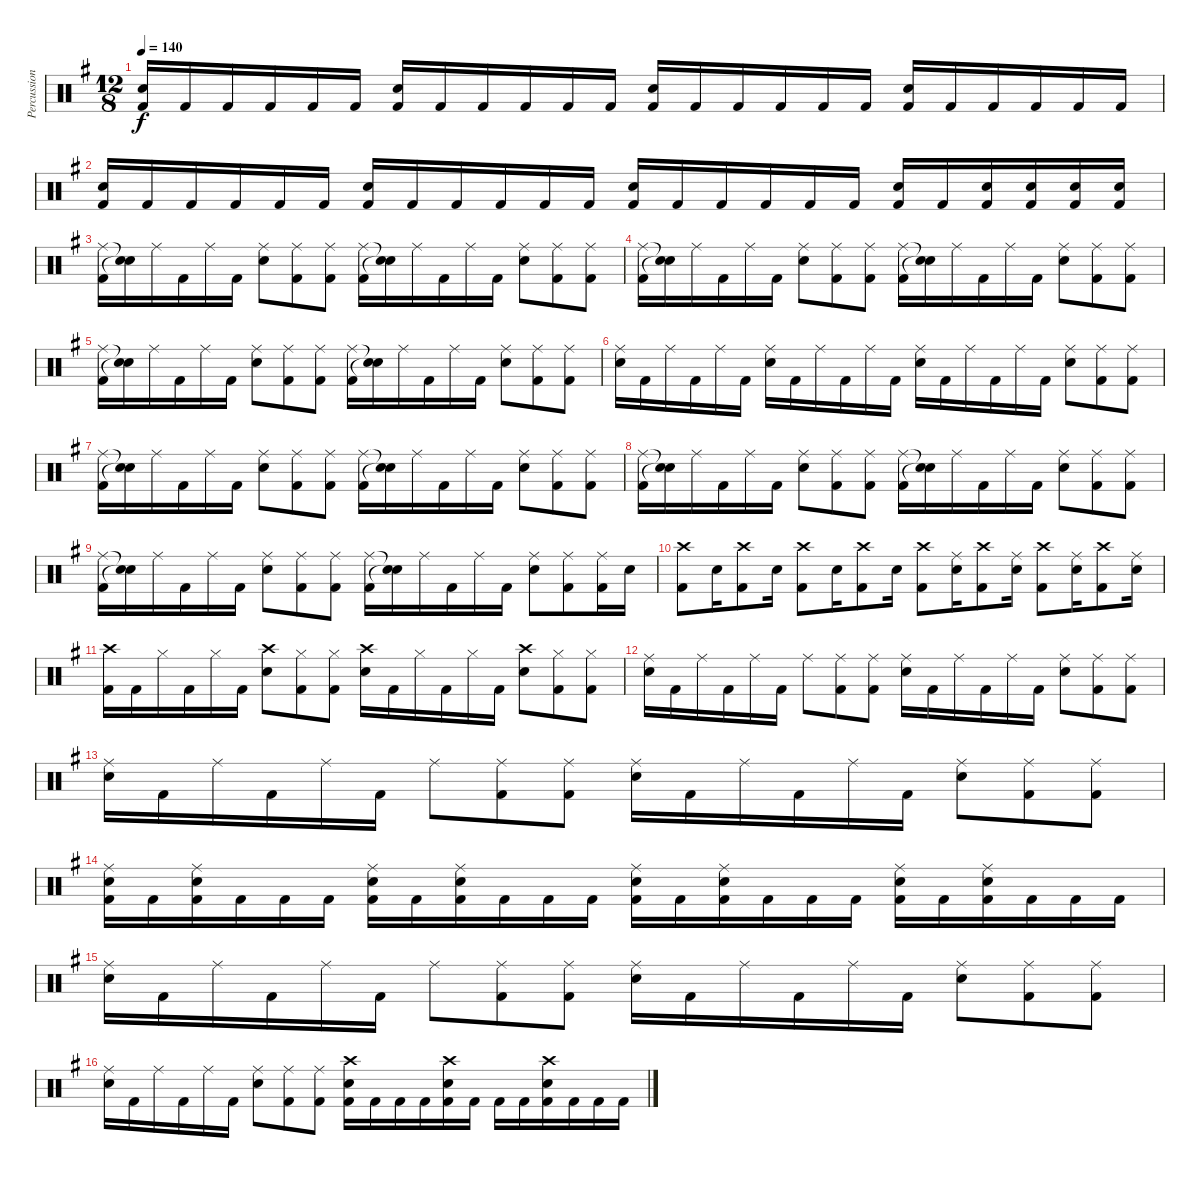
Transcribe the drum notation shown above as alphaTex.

\track ("Percussion" "Percussion") {instrument percussion}
\staff {score}
\articulation defaults
\ts (12 8)
\tempo 140
\clef neutral
\ks g
("Snare (hit) 2" "Kick (hit) 2").16{dy f} "Kick (hit) 2".16 "Kick (hit) 2".16 "Kick (hit) 2".16 "Kick (hit) 2".16 "Kick (hit) 2".16 ("Snare (hit) 2" "Kick (hit) 2").16 "Kick (hit) 2".16 "Kick (hit) 2".16 "Kick (hit) 2".16 "Kick (hit) 2".16 "Kick (hit) 2".16 ("Snare (hit) 2" "Kick (hit) 2").16 "Kick (hit) 2".16 "Kick (hit) 2".16 "Kick (hit) 2".16 "Kick (hit) 2".16 "Kick (hit) 2".16 ("Snare (hit) 2" "Kick (hit) 2").16 "Kick (hit) 2".16 "Kick (hit) 2".16 "Kick (hit) 2".16 "Kick (hit) 2".16 "Kick (hit) 2".16 |
("Snare (hit) 2" "Kick (hit) 2").16 "Kick (hit) 2".16 "Kick (hit) 2".16 "Kick (hit) 2".16 "Kick (hit) 2".16 "Kick (hit) 2".16 ("Snare (hit) 2" "Kick (hit) 2").16 "Kick (hit) 2".16 "Kick (hit) 2".16 "Kick (hit) 2".16 "Kick (hit) 2".16 "Kick (hit) 2".16 ("Snare (hit) 2" "Kick (hit) 2").16 "Kick (hit) 2".16 "Kick (hit) 2".16 "Kick (hit) 2".16 "Kick (hit) 2".16 "Kick (hit) 2".16 ("Snare (hit) 2" "Kick (hit) 2").16 "Kick (hit) 2".16 ("Snare (hit) 2" "Kick (hit) 2").16 ("Snare (hit) 2" "Kick (hit) 2").16 ("Snare (hit) 2" "Kick (hit) 2").16 ("Snare (hit) 2" "Kick (hit) 2").16 |
("Ride (middle)" "Kick (hit) 2").16 ("Snare (hit)"{t} "Snare (hit)"{t}).16 "Ride (middle)".16 "Kick (hit) 2".16 "Ride (middle)".16 "Kick (hit) 2".16 ("Ride (middle)" "Snare (hit) 2").8 ("Ride (middle)" "Kick (hit) 2").8 ("Ride (middle)" "Kick (hit) 2").8 ("Ride (middle)" "Kick (hit) 2").16 ("Snare (hit)"{t} "Snare (hit)"{t}).16 "Ride (middle)".16 "Kick (hit) 2".16 "Ride (middle)".16 "Kick (hit) 2".16 ("Ride (middle)" "Snare (hit) 2").8 ("Ride (middle)" "Kick (hit) 2").8 ("Ride (middle)" "Kick (hit) 2").8 |
("Ride (middle)" "Kick (hit) 2").16 ("Snare (hit)"{t} "Snare (hit)"{t}).16 "Ride (middle)".16 "Kick (hit) 2".16 "Ride (middle)".16 "Kick (hit) 2".16 ("Ride (middle)" "Snare (hit) 2").8 ("Ride (middle)" "Kick (hit) 2").8 ("Ride (middle)" "Kick (hit) 2").8 ("Ride (middle)" "Kick (hit) 2").16 ("Snare (hit)"{t} "Snare (hit)"{t}).16 "Ride (middle)".16 "Kick (hit) 2".16 "Ride (middle)".16 "Kick (hit) 2".16 ("Ride (middle)" "Snare (hit) 2").8 ("Ride (middle)" "Kick (hit) 2").8 ("Ride (middle)" "Kick (hit) 2").8 |
("Ride (middle)" "Kick (hit) 2").16 ("Snare (hit)"{t} "Snare (hit)"{t}).16 "Ride (middle)".16 "Kick (hit) 2".16 "Ride (middle)".16 "Kick (hit) 2".16 ("Ride (middle)" "Snare (hit) 2").8 ("Ride (middle)" "Kick (hit) 2").8 ("Ride (middle)" "Kick (hit) 2").8 ("Ride (middle)" "Kick (hit) 2").16 ("Snare (hit)"{t} "Snare (hit)"{t}).16 "Ride (middle)".16 "Kick (hit) 2".16 "Ride (middle)".16 "Kick (hit) 2".16 ("Ride (middle)" "Snare (hit) 2").8 ("Ride (middle)" "Kick (hit) 2").8 ("Ride (middle)" "Kick (hit) 2").8 |
("Ride (middle)" "Snare (hit) 2").16 "Kick (hit) 2".16 "Ride (middle)".16 "Kick (hit) 2".16 "Ride (middle)".16 "Kick (hit) 2".16 ("Ride (middle)" "Snare (hit) 2").16 "Kick (hit) 2".16 "Ride (middle)".16 "Kick (hit) 2".16 "Ride (middle)".16 "Kick (hit) 2".16 ("Ride (middle)" "Snare (hit) 2").16 "Kick (hit) 2".16 "Ride (middle)".16 "Kick (hit) 2".16 "Ride (middle)".16 "Kick (hit) 2".16 ("Ride (middle)" "Snare (hit) 2").8 ("Ride (middle)" "Kick (hit) 2").8 ("Ride (middle)" "Kick (hit) 2").8 |
("Ride (middle)" "Kick (hit) 2").16 ("Snare (hit)"{t} "Snare (hit)"{t}).16 "Ride (middle)".16 "Kick (hit) 2".16 "Ride (middle)".16 "Kick (hit) 2".16 ("Ride (middle)" "Snare (hit) 2").8 ("Ride (middle)" "Kick (hit) 2").8 ("Ride (middle)" "Kick (hit) 2").8 ("Ride (middle)" "Kick (hit) 2").16 ("Snare (hit)"{t} "Snare (hit)"{t}).16 "Ride (middle)".16 "Kick (hit) 2".16 "Ride (middle)".16 "Kick (hit) 2".16 ("Ride (middle)" "Snare (hit) 2").8 ("Ride (middle)" "Kick (hit) 2").8 ("Ride (middle)" "Kick (hit) 2").8 |
("Ride (middle)" "Kick (hit) 2").16 ("Snare (hit)"{t} "Snare (hit)"{t}).16 "Ride (middle)".16 "Kick (hit) 2".16 "Ride (middle)".16 "Kick (hit) 2".16 ("Ride (middle)" "Snare (hit) 2").8 ("Ride (middle)" "Kick (hit) 2").8 ("Ride (middle)" "Kick (hit) 2").8 ("Ride (middle)" "Kick (hit) 2").16 ("Snare (hit)"{t} "Snare (hit)"{t}).16 "Ride (middle)".16 "Kick (hit) 2".16 "Ride (middle)".16 "Kick (hit) 2".16 ("Ride (middle)" "Snare (hit) 2").8 ("Ride (middle)" "Kick (hit) 2").8 ("Ride (middle)" "Kick (hit) 2").8 |
("Ride (middle)" "Kick (hit) 2").16 ("Snare (hit)"{t} "Snare (hit)"{t}).16 "Ride (middle)".16 "Kick (hit) 2".16 "Ride (middle)".16 "Kick (hit) 2".16 ("Ride (middle)" "Snare (hit) 2").8 ("Ride (middle)" "Kick (hit) 2").8 ("Ride (middle)" "Kick (hit) 2").8 ("Ride (middle)" "Kick (hit) 2").16 ("Snare (hit)"{t} "Snare (hit)"{t}).16 "Ride (middle)".16 "Kick (hit) 2".16 "Ride (middle)".16 "Kick (hit) 2".16 ("Ride (middle)" "Snare (hit) 2").8 ("Ride (middle)" "Kick (hit) 2").8 ("Ride (middle)" "Kick (hit) 2").16 "Snare (hit) 2".16 |
("Crash high (hit)" "Kick (hit) 2").8 "Snare (hit) 2".16 ("Crash high (hit)" "Kick (hit) 2").8 "Snare (hit) 2".16 ("Crash high (hit)" "Kick (hit) 2").8 "Snare (hit) 2".16 ("Crash high (hit)" "Kick (hit) 2").8 "Snare (hit) 2".16 ("Crash high (hit)" "Kick (hit) 2").8 ("Ride (middle)" "Snare (hit) 2").16 ("Crash high (hit)" "Kick (hit) 2").8 ("Ride (middle)" "Snare (hit) 2").16 ("Crash high (hit)" "Kick (hit) 2").8 ("Ride (middle)" "Snare (hit) 2").16 ("Crash high (hit)" "Kick (hit) 2").8 ("Ride (middle)" "Snare (hit) 2").16 |
("Crash high (hit)" "Kick (hit) 2").16 "Kick (hit) 2".16 "Hi-Hat (closed)".16 "Kick (hit) 2".16 "Hi-Hat (closed)".16 "Kick (hit) 2".16 ("Crash high (hit)" "Snare (hit) 2").8 ("Hi-Hat (closed)" "Kick (hit) 2").8 ("Hi-Hat (closed)" "Kick (hit) 2").8 ("Crash high (hit)" "Snare (hit) 2").16 "Kick (hit) 2".16 "Hi-Hat (closed)".16 "Kick (hit) 2".16 "Hi-Hat (closed)".16 "Kick (hit) 2".16 ("Crash high (hit)" "Snare (hit) 2").8 ("Hi-Hat (closed)" "Kick (hit) 2").8 ("Hi-Hat (closed)" "Kick (hit) 2").8 |
("Ride (middle)" "Snare (hit) 2").16 "Kick (hit) 2".16 "Ride (middle)".16 "Kick (hit) 2".16 "Ride (middle)".16 "Kick (hit) 2".16 "Ride (middle)".8 ("Ride (middle)" "Kick (hit) 2").8 ("Ride (middle)" "Kick (hit) 2").8 ("Ride (middle)" "Snare (hit) 2").16 "Kick (hit) 2".16 "Ride (middle)".16 "Kick (hit) 2".16 "Ride (middle)".16 "Kick (hit) 2".16 ("Ride (middle)" "Snare (hit) 2").8 ("Ride (middle)" "Kick (hit) 2").8 ("Ride (middle)" "Kick (hit) 2").8 |
("Ride (middle)" "Snare (hit) 2").16 "Kick (hit) 2".16 "Ride (middle)".16 "Kick (hit) 2".16 "Ride (middle)".16 "Kick (hit) 2".16 "Ride (middle)".8 ("Ride (middle)" "Kick (hit) 2").8 ("Ride (middle)" "Kick (hit) 2").8 ("Ride (middle)" "Snare (hit) 2").16 "Kick (hit) 2".16 "Ride (middle)".16 "Kick (hit) 2".16 "Ride (middle)".16 "Kick (hit) 2".16 ("Ride (middle)" "Snare (hit) 2").8 ("Ride (middle)" "Kick (hit) 2").8 ("Ride (middle)" "Kick (hit) 2").8 |
("Ride (middle)" "Snare (hit) 2" "Kick (hit) 2").16 "Kick (hit) 2".16 ("Ride (middle)" "Snare (hit) 2" "Kick (hit) 2").16 "Kick (hit) 2".16 "Kick (hit) 2".16 "Kick (hit) 2".16 ("Ride (middle)" "Snare (hit) 2" "Kick (hit) 2").16 "Kick (hit) 2".16 ("Ride (middle)" "Snare (hit) 2" "Kick (hit) 2").16 "Kick (hit) 2".16 "Kick (hit) 2".16 "Kick (hit) 2".16 ("Ride (middle)" "Snare (hit) 2" "Kick (hit) 2").16 "Kick (hit) 2".16 ("Ride (middle)" "Snare (hit) 2" "Kick (hit) 2").16 "Kick (hit) 2".16 "Kick (hit) 2".16 "Kick (hit) 2".16 ("Ride (middle)" "Snare (hit) 2" "Kick (hit) 2").16 "Kick (hit) 2".16 ("Ride (middle)" "Snare (hit) 2" "Kick (hit) 2").16 "Kick (hit) 2".16 "Kick (hit) 2".16 "Kick (hit) 2".16 |
("Ride (middle)" "Snare (hit) 2").16 "Kick (hit) 2".16 "Ride (middle)".16 "Kick (hit) 2".16 "Ride (middle)".16 "Kick (hit) 2".16 "Ride (middle)".8 ("Ride (middle)" "Kick (hit) 2").8 ("Ride (middle)" "Kick (hit) 2").8 ("Ride (middle)" "Snare (hit) 2").16 "Kick (hit) 2".16 "Ride (middle)".16 "Kick (hit) 2".16 "Ride (middle)".16 "Kick (hit) 2".16 ("Ride (middle)" "Snare (hit) 2").8 ("Ride (middle)" "Kick (hit) 2").8 ("Ride (middle)" "Kick (hit) 2").8 |
("Ride (middle)" "Snare (hit) 2").16 "Kick (hit) 2".16 "Ride (middle)".16 "Kick (hit) 2".16 "Ride (middle)".16 "Kick (hit) 2".16 ("Ride (middle)" "Snare (hit) 2").8 ("Ride (middle)" "Kick (hit) 2").8 ("Ride (middle)" "Kick (hit) 2").8 ("Crash high (hit)" "Snare (hit) 2" "Kick (hit) 2").16 "Kick (hit) 2".16 "Kick (hit) 2".16 "Kick (hit) 2".16 ("Crash high (hit)" "Snare (hit) 2" "Kick (hit) 2").16 "Kick (hit) 2".16 "Kick (hit) 2".16 "Kick (hit) 2".16 ("Crash high (hit)" "Snare (hit) 2" "Kick (hit) 2").16 "Kick (hit) 2".16 "Kick (hit) 2".16 "Kick (hit) 2".16
